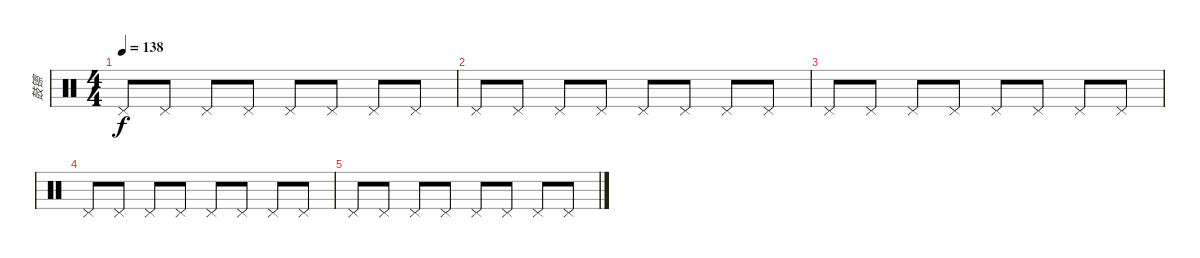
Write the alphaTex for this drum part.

\track ("鼓镲" "鼓镲") {instrument percussion}
\staff {score}
\articulation defaults
\ts (4 4)
\tempo 138
\clef neutral
\ks c "Pedal Hi-Hat (hit)".8{dy f} "Pedal Hi-Hat (hit)".8 "Pedal Hi-Hat (hit)".8 "Pedal Hi-Hat (hit)".8 "Pedal Hi-Hat (hit)".8 "Pedal Hi-Hat (hit)".8 "Pedal Hi-Hat (hit)".8 "Pedal Hi-Hat (hit)".8
|
"Pedal Hi-Hat (hit)".8 "Pedal Hi-Hat (hit)".8 "Pedal Hi-Hat (hit)".8 "Pedal Hi-Hat (hit)".8 "Pedal Hi-Hat (hit)".8 "Pedal Hi-Hat (hit)".8 "Pedal Hi-Hat (hit)".8 "Pedal Hi-Hat (hit)".8 |
"Pedal Hi-Hat (hit)".8 "Pedal Hi-Hat (hit)".8 "Pedal Hi-Hat (hit)".8 "Pedal Hi-Hat (hit)".8 "Pedal Hi-Hat (hit)".8 "Pedal Hi-Hat (hit)".8 "Pedal Hi-Hat (hit)".8 "Pedal Hi-Hat (hit)".8 |
"Pedal Hi-Hat (hit)".8 "Pedal Hi-Hat (hit)".8 "Pedal Hi-Hat (hit)".8 "Pedal Hi-Hat (hit)".8 "Pedal Hi-Hat (hit)".8 "Pedal Hi-Hat (hit)".8 "Pedal Hi-Hat (hit)".8 "Pedal Hi-Hat (hit)".8 |
"Pedal Hi-Hat (hit)".8 "Pedal Hi-Hat (hit)".8 "Pedal Hi-Hat (hit)".8 "Pedal Hi-Hat (hit)".8 "Pedal Hi-Hat (hit)".8 "Pedal Hi-Hat (hit)".8 "Pedal Hi-Hat (hit)".8 "Pedal Hi-Hat (hit)".8
